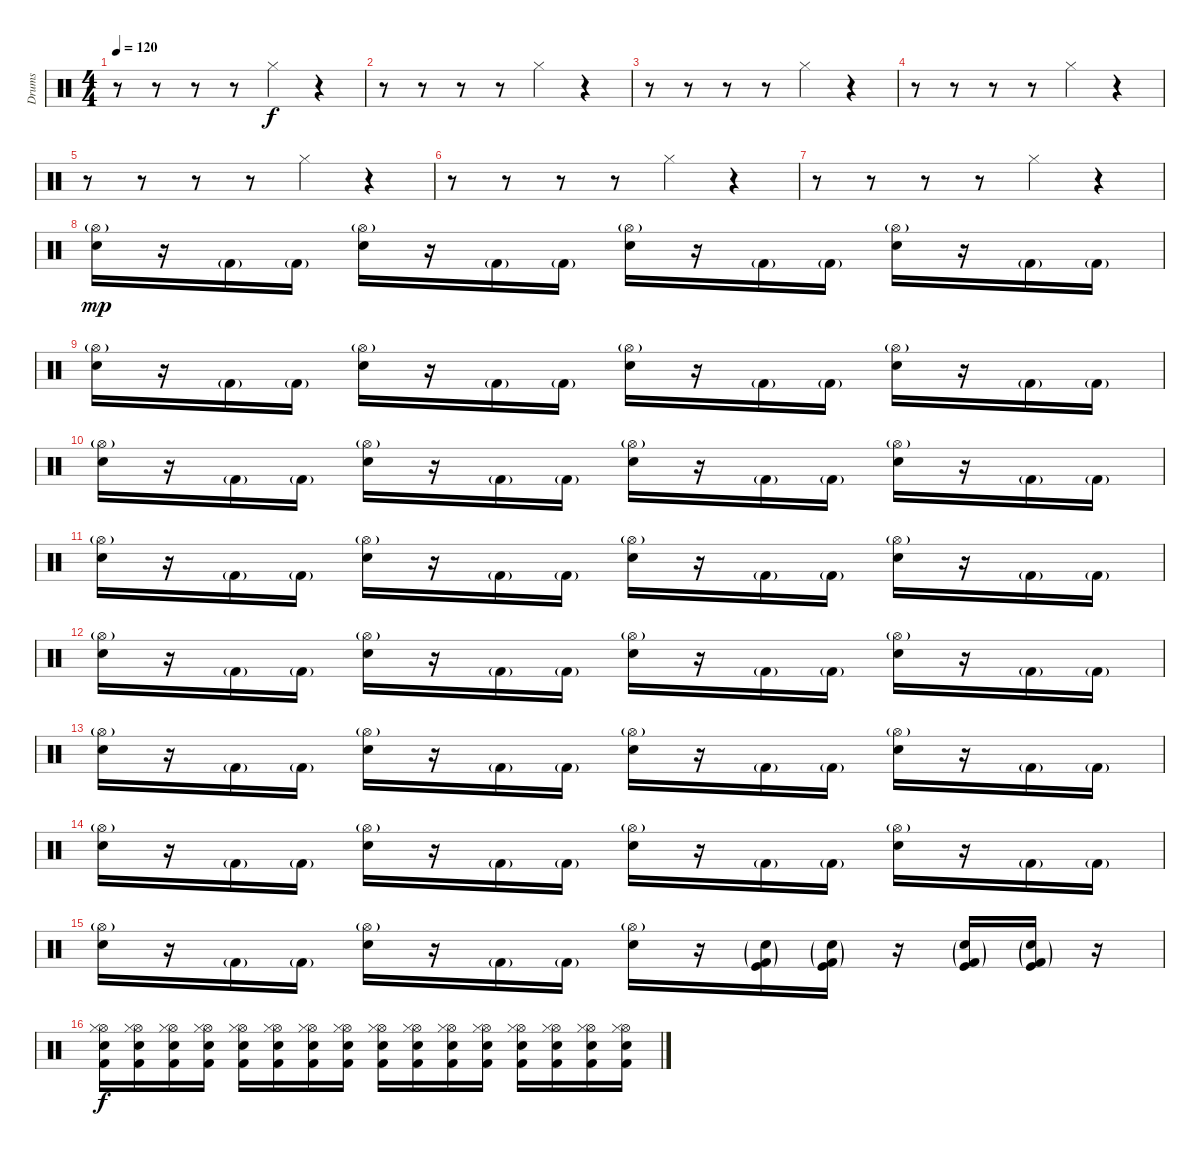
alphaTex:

\track ("Drums" "Drums") {instrument percussion}
\staff {score}
\articulation defaults
\ts (4 4)
\tempo 120
\clef neutral
\ks c
r.8{dy f} r.8 r.8 r.8 "Hi-Hat (closed)".4 r.4 |
r.8 r.8 r.8 r.8 "Hi-Hat (closed)".4 r.4 |
r.8 r.8 r.8 r.8 "Hi-Hat (closed)".4 r.4 |
r.8 r.8 r.8 r.8 "Hi-Hat (closed)".4 r.4 |
r.8 r.8 r.8 r.8 "Hi-Hat (closed)".4 r.4 |
r.8 r.8 r.8 r.8 "Hi-Hat (closed)".4 r.4 |
r.8 r.8 r.8 r.8 "Hi-Hat (closed)".4 r.4 |
("Hi-Hat (open)"{g} "Electric Snare (hit)").16{dy mp} r.16 "Kick (hit) 2"{g}.16 "Kick (hit) 2"{g}.16 ("Hi-Hat (open)"{g} "Electric Snare (hit)").16 r.16 "Kick (hit) 2"{g}.16 "Kick (hit) 2"{g}.16 ("Hi-Hat (open)"{g} "Electric Snare (hit)").16 r.16 "Kick (hit) 2"{g}.16 "Kick (hit) 2"{g}.16 ("Hi-Hat (open)"{g} "Electric Snare (hit)").16 r.16 "Kick (hit) 2"{g}.16 "Kick (hit) 2"{g}.16 |
("Hi-Hat (open)"{g} "Electric Snare (hit)").16 r.16 "Kick (hit) 2"{g}.16 "Kick (hit) 2"{g}.16 ("Hi-Hat (open)"{g} "Electric Snare (hit)").16 r.16 "Kick (hit) 2"{g}.16 "Kick (hit) 2"{g}.16 ("Hi-Hat (open)"{g} "Electric Snare (hit)").16 r.16 "Kick (hit) 2"{g}.16 "Kick (hit) 2"{g}.16 ("Hi-Hat (open)"{g} "Electric Snare (hit)").16 r.16 "Kick (hit) 2"{g}.16 "Kick (hit) 2"{g}.16 |
("Hi-Hat (open)"{g} "Electric Snare (hit)").16 r.16 "Kick (hit) 2"{g}.16 "Kick (hit) 2"{g}.16 ("Hi-Hat (open)"{g} "Electric Snare (hit)").16 r.16 "Kick (hit) 2"{g}.16 "Kick (hit) 2"{g}.16 ("Hi-Hat (open)"{g} "Electric Snare (hit)").16 r.16 "Kick (hit) 2"{g}.16 "Kick (hit) 2"{g}.16 ("Hi-Hat (open)"{g} "Electric Snare (hit)").16 r.16 "Kick (hit) 2"{g}.16 "Kick (hit) 2"{g}.16 |
("Hi-Hat (open)"{g} "Electric Snare (hit)").16 r.16 "Kick (hit) 2"{g}.16 "Kick (hit) 2"{g}.16 ("Hi-Hat (open)"{g} "Electric Snare (hit)").16 r.16 "Kick (hit) 2"{g}.16 "Kick (hit) 2"{g}.16 ("Hi-Hat (open)"{g} "Electric Snare (hit)").16 r.16 "Kick (hit) 2"{g}.16 "Kick (hit) 2"{g}.16 ("Hi-Hat (open)"{g} "Electric Snare (hit)").16 r.16 "Kick (hit) 2"{g}.16 "Kick (hit) 2"{g}.16 |
("Hi-Hat (open)"{g} "Electric Snare (hit)").16 r.16 "Kick (hit) 2"{g}.16 "Kick (hit) 2"{g}.16 ("Hi-Hat (open)"{g} "Electric Snare (hit)").16 r.16 "Kick (hit) 2"{g}.16 "Kick (hit) 2"{g}.16 ("Hi-Hat (open)"{g} "Electric Snare (hit)").16 r.16 "Kick (hit) 2"{g}.16 "Kick (hit) 2"{g}.16 ("Hi-Hat (open)"{g} "Electric Snare (hit)").16 r.16 "Kick (hit) 2"{g}.16 "Kick (hit) 2"{g}.16 |
("Hi-Hat (open)"{g} "Electric Snare (hit)").16 r.16 "Kick (hit) 2"{g}.16 "Kick (hit) 2"{g}.16 ("Hi-Hat (open)"{g} "Electric Snare (hit)").16 r.16 "Kick (hit) 2"{g}.16 "Kick (hit) 2"{g}.16 ("Hi-Hat (open)"{g} "Electric Snare (hit)").16 r.16 "Kick (hit) 2"{g}.16 "Kick (hit) 2"{g}.16 ("Hi-Hat (open)"{g} "Electric Snare (hit)").16 r.16 "Kick (hit) 2"{g}.16 "Kick (hit) 2"{g}.16 |
("Hi-Hat (open)"{g} "Electric Snare (hit)").16 r.16 "Kick (hit) 2"{g}.16 "Kick (hit) 2"{g}.16 ("Hi-Hat (open)"{g} "Electric Snare (hit)").16 r.16 "Kick (hit) 2"{g}.16 "Kick (hit) 2"{g}.16 ("Hi-Hat (open)"{g} "Electric Snare (hit)").16 r.16 "Kick (hit) 2"{g}.16 "Kick (hit) 2"{g}.16 ("Hi-Hat (open)"{g} "Electric Snare (hit)").16 r.16 "Kick (hit) 2"{g}.16 "Kick (hit) 2"{g}.16 |
("Hi-Hat (open)"{g} "Electric Snare (hit)").16 r.16 "Kick (hit) 2"{g}.16 "Kick (hit) 2"{g}.16 ("Hi-Hat (open)"{g} "Electric Snare (hit)").16 r.16 "Kick (hit) 2"{g}.16 "Kick (hit) 2"{g}.16 ("Hi-Hat (open)"{g} "Electric Snare (hit)").16 r.16 ("Snare (hit) 2"{g} "Kick (hit) 2"{g} "Kick (hit)").16 ("Snare (hit) 2"{g} "Kick (hit) 2"{g} "Kick (hit)").16 r.16 ("Snare (hit) 2"{g} "Kick (hit) 2"{g} "Kick (hit)").16 ("Snare (hit) 2"{g} "Kick (hit) 2"{g} "Kick (hit)").16 r.16 |
("Kick (hit) 2" "Electric Snare (hit)" "Hi-Hat (open)" "Hi-Hat (closed)").16{dy f} ("Kick (hit) 2" "Electric Snare (hit)" "Hi-Hat (open)" "Hi-Hat (closed)").16 ("Kick (hit) 2" "Electric Snare (hit)" "Hi-Hat (open)" "Hi-Hat (closed)").16 ("Kick (hit) 2" "Electric Snare (hit)" "Hi-Hat (open)" "Hi-Hat (closed)").16 ("Kick (hit) 2" "Electric Snare (hit)" "Hi-Hat (open)" "Hi-Hat (closed)").16 ("Kick (hit) 2" "Electric Snare (hit)" "Hi-Hat (open)" "Hi-Hat (closed)").16 ("Kick (hit) 2" "Electric Snare (hit)" "Hi-Hat (open)" "Hi-Hat (closed)").16 ("Kick (hit) 2" "Electric Snare (hit)" "Hi-Hat (open)" "Hi-Hat (closed)").16 ("Kick (hit) 2" "Electric Snare (hit)" "Hi-Hat (open)" "Hi-Hat (closed)").16 ("Kick (hit) 2" "Electric Snare (hit)" "Hi-Hat (open)" "Hi-Hat (closed)").16 ("Kick (hit) 2" "Electric Snare (hit)" "Hi-Hat (open)" "Hi-Hat (closed)").16 ("Kick (hit) 2" "Electric Snare (hit)" "Hi-Hat (open)" "Hi-Hat (closed)").16 ("Kick (hit) 2" "Electric Snare (hit)" "Hi-Hat (open)" "Hi-Hat (closed)").16 ("Kick (hit) 2" "Electric Snare (hit)" "Hi-Hat (open)" "Hi-Hat (closed)").16 ("Kick (hit) 2" "Electric Snare (hit)" "Hi-Hat (open)" "Hi-Hat (closed)").16 ("Kick (hit) 2" "Electric Snare (hit)" "Hi-Hat (open)" "Hi-Hat (closed)").16
